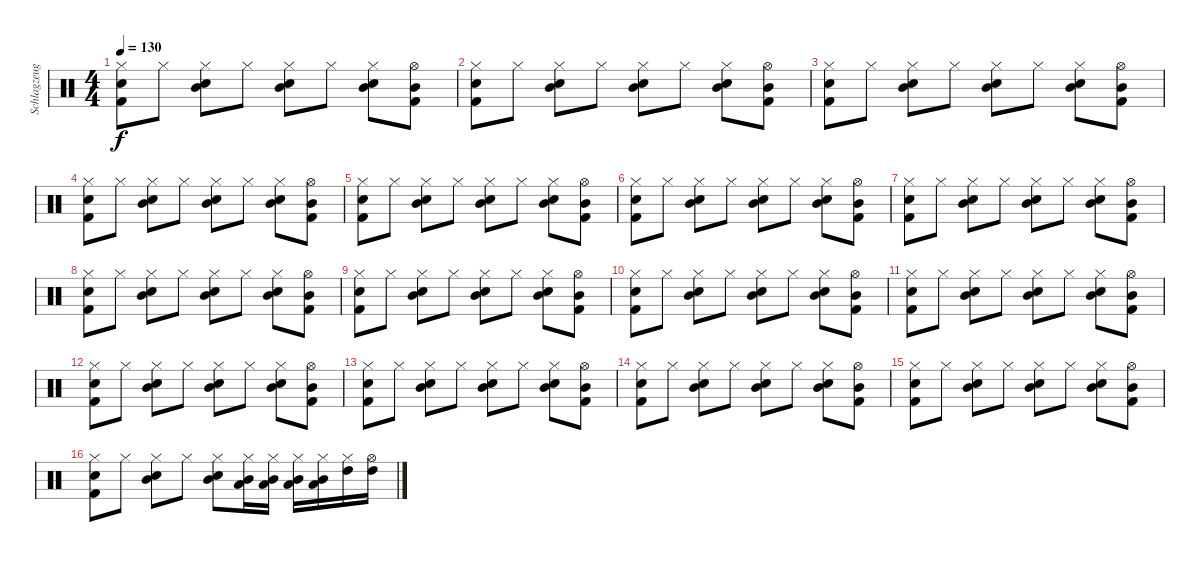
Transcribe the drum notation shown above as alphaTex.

\track ("Schlagzeug" "Schlagzeug") {instrument percussion}
\staff {score}
\articulation defaults
\ts (4 4)
\tempo 130
\clef neutral
\ks c
("Hi-Hat (closed)" "Snare (hit) 2" "Kick (hit) 2").8{dy f} "Hi-Hat (closed)".8 ("Hi-Hat (closed)" "Mid Tom (hit)" "Snare (hit) 2").8 "Hi-Hat (closed)".8 ("Hi-Hat (closed)" "Mid Tom (hit)" "Snare (hit) 2").8 "Hi-Hat (closed)".8 ("Hi-Hat (closed)" "Mid Tom (hit)" "Snare (hit) 2").8 ("Hi-Hat (open)" "Mid Tom (hit)" "Kick (hit) 2").8 |
("Hi-Hat (closed)" "Snare (hit) 2" "Kick (hit) 2").8 "Hi-Hat (closed)".8 ("Hi-Hat (closed)" "Mid Tom (hit)" "Snare (hit) 2").8 "Hi-Hat (closed)".8 ("Hi-Hat (closed)" "Mid Tom (hit)" "Snare (hit) 2").8 "Hi-Hat (closed)".8 ("Hi-Hat (closed)" "Mid Tom (hit)" "Snare (hit) 2").8 ("Hi-Hat (open)" "Mid Tom (hit)" "Kick (hit) 2").8 |
("Hi-Hat (closed)" "Snare (hit) 2" "Kick (hit) 2").8 "Hi-Hat (closed)".8 ("Hi-Hat (closed)" "Mid Tom (hit)" "Snare (hit) 2").8 "Hi-Hat (closed)".8 ("Hi-Hat (closed)" "Mid Tom (hit)" "Snare (hit) 2").8 "Hi-Hat (closed)".8 ("Hi-Hat (closed)" "Mid Tom (hit)" "Snare (hit) 2").8 ("Hi-Hat (open)" "Mid Tom (hit)" "Kick (hit) 2").8 |
("Hi-Hat (closed)" "Snare (hit) 2" "Kick (hit) 2").8 "Hi-Hat (closed)".8 ("Hi-Hat (closed)" "Mid Tom (hit)" "Snare (hit) 2").8 "Hi-Hat (closed)".8 ("Hi-Hat (closed)" "Mid Tom (hit)" "Snare (hit) 2").8 "Hi-Hat (closed)".8 ("Hi-Hat (closed)" "Mid Tom (hit)" "Snare (hit) 2").8 ("Hi-Hat (open)" "Mid Tom (hit)" "Kick (hit) 2").8 |
("Hi-Hat (closed)" "Snare (hit) 2" "Kick (hit) 2").8 "Hi-Hat (closed)".8 ("Hi-Hat (closed)" "Mid Tom (hit)" "Snare (hit) 2").8 "Hi-Hat (closed)".8 ("Hi-Hat (closed)" "Mid Tom (hit)" "Snare (hit) 2").8 "Hi-Hat (closed)".8 ("Hi-Hat (closed)" "Mid Tom (hit)" "Snare (hit) 2").8 ("Hi-Hat (open)" "Mid Tom (hit)" "Kick (hit) 2").8 |
("Hi-Hat (closed)" "Snare (hit) 2" "Kick (hit) 2").8 "Hi-Hat (closed)".8 ("Hi-Hat (closed)" "Mid Tom (hit)" "Snare (hit) 2").8 "Hi-Hat (closed)".8 ("Hi-Hat (closed)" "Mid Tom (hit)" "Snare (hit) 2").8 "Hi-Hat (closed)".8 ("Hi-Hat (closed)" "Mid Tom (hit)" "Snare (hit) 2").8 ("Hi-Hat (open)" "Mid Tom (hit)" "Kick (hit) 2").8 |
("Hi-Hat (closed)" "Snare (hit) 2" "Kick (hit) 2").8 "Hi-Hat (closed)".8 ("Hi-Hat (closed)" "Mid Tom (hit)" "Snare (hit) 2").8 "Hi-Hat (closed)".8 ("Hi-Hat (closed)" "Mid Tom (hit)" "Snare (hit) 2").8 "Hi-Hat (closed)".8 ("Hi-Hat (closed)" "Mid Tom (hit)" "Snare (hit) 2").8 ("Hi-Hat (open)" "Mid Tom (hit)" "Kick (hit) 2").8 |
("Hi-Hat (closed)" "Snare (hit) 2" "Kick (hit) 2").8 "Hi-Hat (closed)".8 ("Hi-Hat (closed)" "Mid Tom (hit)" "Snare (hit) 2").8 "Hi-Hat (closed)".8 ("Hi-Hat (closed)" "Mid Tom (hit)" "Snare (hit) 2").8 "Hi-Hat (closed)".8 ("Hi-Hat (closed)" "Mid Tom (hit)" "Snare (hit) 2").8 ("Hi-Hat (open)" "Mid Tom (hit)" "Kick (hit) 2").8 |
("Hi-Hat (closed)" "Snare (hit) 2" "Kick (hit) 2").8 "Hi-Hat (closed)".8 ("Hi-Hat (closed)" "Mid Tom (hit)" "Snare (hit) 2").8 "Hi-Hat (closed)".8 ("Hi-Hat (closed)" "Mid Tom (hit)" "Snare (hit) 2").8 "Hi-Hat (closed)".8 ("Hi-Hat (closed)" "Mid Tom (hit)" "Snare (hit) 2").8 ("Hi-Hat (open)" "Mid Tom (hit)" "Kick (hit) 2").8 |
("Hi-Hat (closed)" "Snare (hit) 2" "Kick (hit) 2").8 "Hi-Hat (closed)".8 ("Hi-Hat (closed)" "Mid Tom (hit)" "Snare (hit) 2").8 "Hi-Hat (closed)".8 ("Hi-Hat (closed)" "Mid Tom (hit)" "Snare (hit) 2").8 "Hi-Hat (closed)".8 ("Hi-Hat (closed)" "Mid Tom (hit)" "Snare (hit) 2").8 ("Hi-Hat (open)" "Mid Tom (hit)" "Kick (hit) 2").8 |
("Hi-Hat (closed)" "Snare (hit) 2" "Kick (hit) 2").8 "Hi-Hat (closed)".8 ("Hi-Hat (closed)" "Mid Tom (hit)" "Snare (hit) 2").8 "Hi-Hat (closed)".8 ("Hi-Hat (closed)" "Mid Tom (hit)" "Snare (hit) 2").8 "Hi-Hat (closed)".8 ("Hi-Hat (closed)" "Mid Tom (hit)" "Snare (hit) 2").8 ("Hi-Hat (open)" "Mid Tom (hit)" "Kick (hit) 2").8 |
("Hi-Hat (closed)" "Snare (hit) 2" "Kick (hit) 2").8 "Hi-Hat (closed)".8 ("Hi-Hat (closed)" "Mid Tom (hit)" "Snare (hit) 2").8 "Hi-Hat (closed)".8 ("Hi-Hat (closed)" "Mid Tom (hit)" "Snare (hit) 2").8 "Hi-Hat (closed)".8 ("Hi-Hat (closed)" "Mid Tom (hit)" "Snare (hit) 2").8 ("Hi-Hat (open)" "Mid Tom (hit)" "Kick (hit) 2").8 |
("Hi-Hat (closed)" "Snare (hit) 2" "Kick (hit) 2").8 "Hi-Hat (closed)".8 ("Hi-Hat (closed)" "Mid Tom (hit)" "Snare (hit) 2").8 "Hi-Hat (closed)".8 ("Hi-Hat (closed)" "Mid Tom (hit)" "Snare (hit) 2").8 "Hi-Hat (closed)".8 ("Hi-Hat (closed)" "Mid Tom (hit)" "Snare (hit) 2").8 ("Hi-Hat (open)" "Mid Tom (hit)" "Kick (hit) 2").8 |
("Hi-Hat (closed)" "Snare (hit) 2" "Kick (hit) 2").8 "Hi-Hat (closed)".8 ("Hi-Hat (closed)" "Mid Tom (hit)" "Snare (hit) 2").8 "Hi-Hat (closed)".8 ("Hi-Hat (closed)" "Mid Tom (hit)" "Snare (hit) 2").8 "Hi-Hat (closed)".8 ("Hi-Hat (closed)" "Mid Tom (hit)" "Snare (hit) 2").8 ("Hi-Hat (open)" "Mid Tom (hit)" "Kick (hit) 2").8 |
("Hi-Hat (closed)" "Snare (hit) 2" "Kick (hit) 2").8 "Hi-Hat (closed)".8 ("Hi-Hat (closed)" "Mid Tom (hit)" "Snare (hit) 2").8 "Hi-Hat (closed)".8 ("Hi-Hat (closed)" "Mid Tom (hit)" "Snare (hit) 2").8 "Hi-Hat (closed)".8 ("Hi-Hat (closed)" "Mid Tom (hit)" "Snare (hit) 2").8 ("Hi-Hat (open)" "Mid Tom (hit)" "Kick (hit) 2").8 |
("Hi-Hat (closed)" "Snare (hit) 2" "Kick (hit) 2").8 "Hi-Hat (closed)".8 ("Hi-Hat (closed)" "Mid Tom (hit)" "Snare (hit) 2").8 "Hi-Hat (closed)".8 ("Hi-Hat (closed)" "Mid Tom (hit)" "Snare (hit) 2").8 ("Hi-Hat (closed)" "Mid Tom (hit)" "Low Floor Tom (hit)").16 ("Hi-Hat (closed)" "Mid Tom (hit)" "Low Floor Tom (hit)").16 ("Hi-Hat (closed)" "Mid Tom (hit)" "Low Floor Tom (hit)").16 ("Hi-Hat (closed)" "Mid Tom (hit)" "Low Floor Tom (hit)").16 ("Hi-Hat (closed)" "High Tom (hit)").16 ("Hi-Hat (open)" "High Tom (hit)").16
